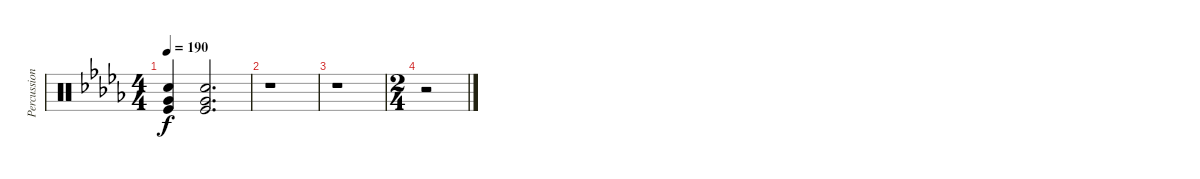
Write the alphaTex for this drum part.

\track ("Percussion" "Percussion") {instrument percussion}
\staff {score}
\articulation defaults
\ts (4 4)
\tempo 190
\clef neutral
\ks db
("Very Low Tom (hit)" "Electric Snare (hit)" "Kick (hit)").4{dy f} ("Very Low Tom (hit)" "Electric Snare (hit)" "Kick (hit)").2{d} |
r.1 |
r.1 |
\ts (2 4)
r.2
